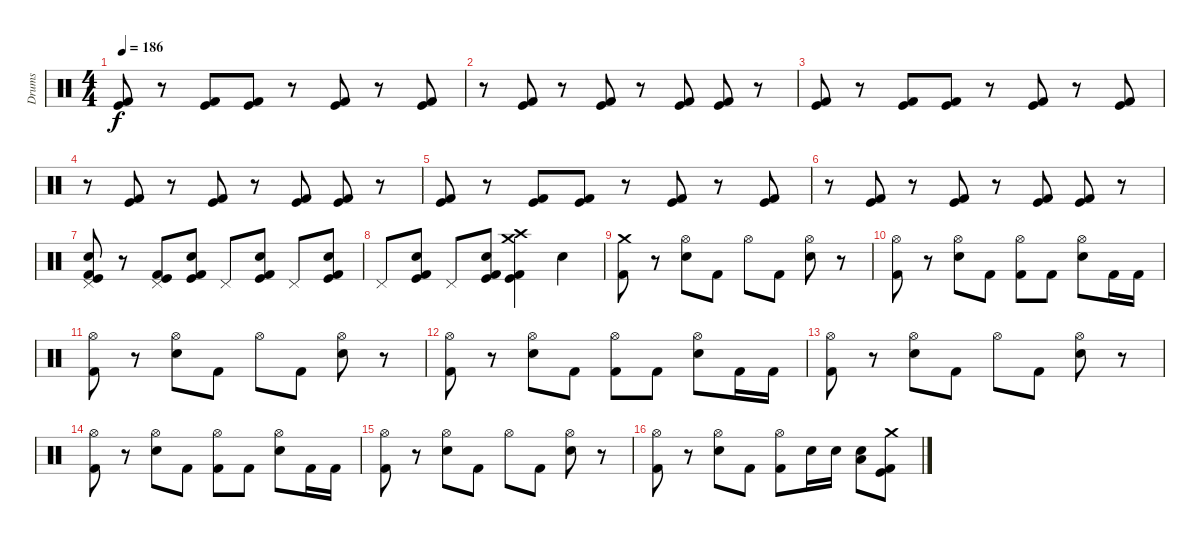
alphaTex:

\track ("Drums" "Drums") {instrument percussion}
\staff {score}
\articulation defaults
\ts (4 4)
\tempo 186
\clef neutral
\ks c
("Kick (hit)" "Kick (hit) 2").8{dy f} r.8 ("Kick (hit)" "Kick (hit) 2").8 ("Kick (hit)" "Kick (hit) 2").8 r.8 ("Kick (hit)" "Kick (hit) 2").8 r.8 ("Kick (hit)" "Kick (hit) 2").8 |
r.8 ("Kick (hit)" "Kick (hit) 2").8 r.8 ("Kick (hit)" "Kick (hit) 2").8 r.8 ("Kick (hit)" "Kick (hit) 2").8 ("Kick (hit)" "Kick (hit) 2").8 r.8 |
("Kick (hit)" "Kick (hit) 2").8 r.8 ("Kick (hit)" "Kick (hit) 2").8 ("Kick (hit)" "Kick (hit) 2").8 r.8 ("Kick (hit)" "Kick (hit) 2").8 r.8 ("Kick (hit)" "Kick (hit) 2").8 |
r.8 ("Kick (hit)" "Kick (hit) 2").8 r.8 ("Kick (hit)" "Kick (hit) 2").8 r.8 ("Kick (hit)" "Kick (hit) 2").8 ("Kick (hit)" "Kick (hit) 2").8 r.8 |
("Kick (hit)" "Kick (hit) 2").8 r.8 ("Kick (hit)" "Kick (hit) 2").8 ("Kick (hit)" "Kick (hit) 2").8 r.8 ("Kick (hit)" "Kick (hit) 2").8 r.8 ("Kick (hit)" "Kick (hit) 2").8 |
r.8 ("Kick (hit)" "Kick (hit) 2").8 r.8 ("Kick (hit)" "Kick (hit) 2").8 r.8 ("Kick (hit)" "Kick (hit) 2").8 ("Kick (hit)" "Kick (hit) 2").8 r.8 |
("Pedal Hi-Hat (hit)" "Snare (hit) 2" "Kick (hit)" "Kick (hit) 2").8 r.8 ("Pedal Hi-Hat (hit)" "Kick (hit)" "Kick (hit) 2").8 ("Snare (hit) 2" "Kick (hit)" "Kick (hit) 2").8 "Pedal Hi-Hat (hit)".8 ("Snare (hit) 2" "Kick (hit)" "Kick (hit) 2").8 "Pedal Hi-Hat (hit)".8 ("Snare (hit) 2" "Kick (hit)" "Kick (hit) 2").8 |
"Pedal Hi-Hat (hit)".8 ("Snare (hit) 2" "Kick (hit)" "Kick (hit) 2").8 "Pedal Hi-Hat (hit)".8 ("Snare (hit) 2" "Kick (hit)" "Kick (hit) 2").8 ("Crash medium (hit)" "Crash high (hit)" "Kick (hit)" "Kick (hit) 2").4 "Snare (hit) 2".4 |
("Crash medium (hit)" "Kick (hit) 2").8 r.8 ("Hi-Hat (open)" "Snare (hit) 2").8 "Kick (hit) 2".8 "Hi-Hat (open)".8 "Kick (hit) 2".8 ("Hi-Hat (open)" "Snare (hit) 2").8 r.8 |
("Hi-Hat (open)" "Kick (hit) 2").8 r.8 ("Hi-Hat (open)" "Snare (hit) 2").8 "Kick (hit) 2".8 ("Hi-Hat (open)" "Kick (hit) 2").8 "Kick (hit) 2".8 ("Hi-Hat (open)" "Snare (hit) 2").8 "Kick (hit) 2".16 "Kick (hit) 2".16 |
("Hi-Hat (open)" "Kick (hit) 2").8 r.8 ("Hi-Hat (open)" "Snare (hit) 2").8 "Kick (hit) 2".8 "Hi-Hat (open)".8 "Kick (hit) 2".8 ("Hi-Hat (open)" "Snare (hit) 2").8 r.8 |
("Hi-Hat (open)" "Kick (hit) 2").8 r.8 ("Hi-Hat (open)" "Snare (hit) 2").8 "Kick (hit) 2".8 ("Hi-Hat (open)" "Kick (hit) 2").8 "Kick (hit) 2".8 ("Hi-Hat (open)" "Snare (hit) 2").8 "Kick (hit) 2".16 "Kick (hit) 2".16 |
("Hi-Hat (open)" "Kick (hit) 2").8 r.8 ("Hi-Hat (open)" "Snare (hit) 2").8 "Kick (hit) 2".8 "Hi-Hat (open)".8 "Kick (hit) 2".8 ("Hi-Hat (open)" "Snare (hit) 2").8 r.8 |
("Hi-Hat (open)" "Kick (hit) 2").8 r.8 ("Hi-Hat (open)" "Snare (hit) 2").8 "Kick (hit) 2".8 ("Hi-Hat (open)" "Kick (hit) 2").8 "Kick (hit) 2".8 ("Hi-Hat (open)" "Snare (hit) 2").8 "Kick (hit) 2".16 "Kick (hit) 2".16 |
("Hi-Hat (open)" "Kick (hit) 2").8 r.8 ("Hi-Hat (open)" "Snare (hit) 2").8 "Kick (hit) 2".8 "Hi-Hat (open)".8 "Kick (hit) 2".8 ("Hi-Hat (open)" "Snare (hit) 2").8 r.8 |
("Hi-Hat (open)" "Kick (hit) 2").8 r.8 ("Hi-Hat (open)" "Snare (hit) 2").8 "Kick (hit) 2".8 ("Hi-Hat (open)" "Kick (hit) 2").8 "Snare (hit) 2".16 "Snare (hit) 2".16 ("Low Tom (hit)" "Snare (hit) 2").8 ("Crash medium (hit)" "Kick (hit)" "Kick (hit) 2").8
